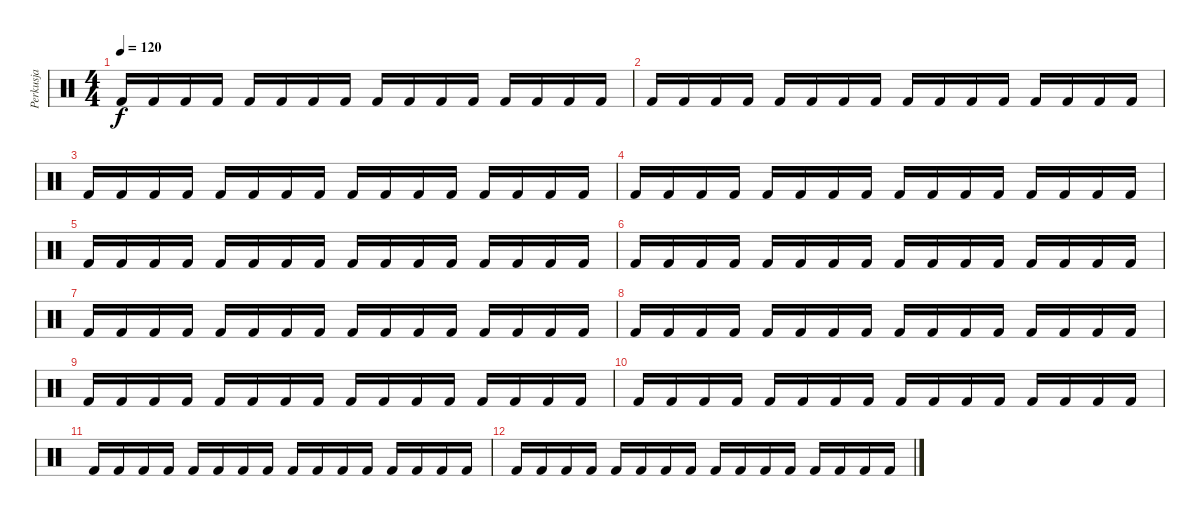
\track ("Perkusja" "Perkusja") {instrument percussion}
\staff {score}
\articulation defaults
\ts (4 4)
\tempo 120
\clef neutral
\ks c "Kick (hit) 2".16{dy f} "Kick (hit) 2".16 "Kick (hit) 2".16 "Kick (hit) 2".16 "Kick (hit) 2".16 "Kick (hit) 2".16 "Kick (hit) 2".16 "Kick (hit) 2".16 "Kick (hit) 2".16 "Kick (hit) 2".16 "Kick (hit) 2".16 "Kick (hit) 2".16 "Kick (hit) 2".16 "Kick (hit) 2".16 "Kick (hit) 2".16 "Kick (hit) 2".16
|
"Kick (hit) 2".16 "Kick (hit) 2".16 "Kick (hit) 2".16 "Kick (hit) 2".16 "Kick (hit) 2".16 "Kick (hit) 2".16 "Kick (hit) 2".16 "Kick (hit) 2".16 "Kick (hit) 2".16 "Kick (hit) 2".16 "Kick (hit) 2".16 "Kick (hit) 2".16 "Kick (hit) 2".16 "Kick (hit) 2".16 "Kick (hit) 2".16 "Kick (hit) 2".16 |
"Kick (hit) 2".16 "Kick (hit) 2".16 "Kick (hit) 2".16 "Kick (hit) 2".16 "Kick (hit) 2".16 "Kick (hit) 2".16 "Kick (hit) 2".16 "Kick (hit) 2".16 "Kick (hit) 2".16 "Kick (hit) 2".16 "Kick (hit) 2".16 "Kick (hit) 2".16 "Kick (hit) 2".16 "Kick (hit) 2".16 "Kick (hit) 2".16 "Kick (hit) 2".16 |
"Kick (hit) 2".16 "Kick (hit) 2".16 "Kick (hit) 2".16 "Kick (hit) 2".16 "Kick (hit) 2".16 "Kick (hit) 2".16 "Kick (hit) 2".16 "Kick (hit) 2".16 "Kick (hit) 2".16 "Kick (hit) 2".16 "Kick (hit) 2".16 "Kick (hit) 2".16 "Kick (hit) 2".16 "Kick (hit) 2".16 "Kick (hit) 2".16 "Kick (hit) 2".16 |
"Kick (hit) 2".16 "Kick (hit) 2".16 "Kick (hit) 2".16 "Kick (hit) 2".16 "Kick (hit) 2".16 "Kick (hit) 2".16 "Kick (hit) 2".16 "Kick (hit) 2".16 "Kick (hit) 2".16 "Kick (hit) 2".16 "Kick (hit) 2".16 "Kick (hit) 2".16 "Kick (hit) 2".16 "Kick (hit) 2".16 "Kick (hit) 2".16 "Kick (hit) 2".16 |
"Kick (hit) 2".16 "Kick (hit) 2".16 "Kick (hit) 2".16 "Kick (hit) 2".16 "Kick (hit) 2".16 "Kick (hit) 2".16 "Kick (hit) 2".16 "Kick (hit) 2".16 "Kick (hit) 2".16 "Kick (hit) 2".16 "Kick (hit) 2".16 "Kick (hit) 2".16 "Kick (hit) 2".16 "Kick (hit) 2".16 "Kick (hit) 2".16 "Kick (hit) 2".16 |
"Kick (hit) 2".16 "Kick (hit) 2".16 "Kick (hit) 2".16 "Kick (hit) 2".16 "Kick (hit) 2".16 "Kick (hit) 2".16 "Kick (hit) 2".16 "Kick (hit) 2".16 "Kick (hit) 2".16 "Kick (hit) 2".16 "Kick (hit) 2".16 "Kick (hit) 2".16 "Kick (hit) 2".16 "Kick (hit) 2".16 "Kick (hit) 2".16 "Kick (hit) 2".16 |
"Kick (hit) 2".16 "Kick (hit) 2".16 "Kick (hit) 2".16 "Kick (hit) 2".16 "Kick (hit) 2".16 "Kick (hit) 2".16 "Kick (hit) 2".16 "Kick (hit) 2".16 "Kick (hit) 2".16 "Kick (hit) 2".16 "Kick (hit) 2".16 "Kick (hit) 2".16 "Kick (hit) 2".16 "Kick (hit) 2".16 "Kick (hit) 2".16 "Kick (hit) 2".16 |
"Kick (hit) 2".16 "Kick (hit) 2".16 "Kick (hit) 2".16 "Kick (hit) 2".16 "Kick (hit) 2".16 "Kick (hit) 2".16 "Kick (hit) 2".16 "Kick (hit) 2".16 "Kick (hit) 2".16 "Kick (hit) 2".16 "Kick (hit) 2".16 "Kick (hit) 2".16 "Kick (hit) 2".16 "Kick (hit) 2".16 "Kick (hit) 2".16 "Kick (hit) 2".16 |
"Kick (hit) 2".16 "Kick (hit) 2".16 "Kick (hit) 2".16 "Kick (hit) 2".16 "Kick (hit) 2".16 "Kick (hit) 2".16 "Kick (hit) 2".16 "Kick (hit) 2".16 "Kick (hit) 2".16 "Kick (hit) 2".16 "Kick (hit) 2".16 "Kick (hit) 2".16 "Kick (hit) 2".16 "Kick (hit) 2".16 "Kick (hit) 2".16 "Kick (hit) 2".16 |
"Kick (hit) 2".16 "Kick (hit) 2".16 "Kick (hit) 2".16 "Kick (hit) 2".16 "Kick (hit) 2".16 "Kick (hit) 2".16 "Kick (hit) 2".16 "Kick (hit) 2".16 "Kick (hit) 2".16 "Kick (hit) 2".16 "Kick (hit) 2".16 "Kick (hit) 2".16 "Kick (hit) 2".16 "Kick (hit) 2".16 "Kick (hit) 2".16 "Kick (hit) 2".16 |
"Kick (hit) 2".16 "Kick (hit) 2".16 "Kick (hit) 2".16 "Kick (hit) 2".16 "Kick (hit) 2".16 "Kick (hit) 2".16 "Kick (hit) 2".16 "Kick (hit) 2".16 "Kick (hit) 2".16 "Kick (hit) 2".16 "Kick (hit) 2".16 "Kick (hit) 2".16 "Kick (hit) 2".16 "Kick (hit) 2".16 "Kick (hit) 2".16 "Kick (hit) 2".16
